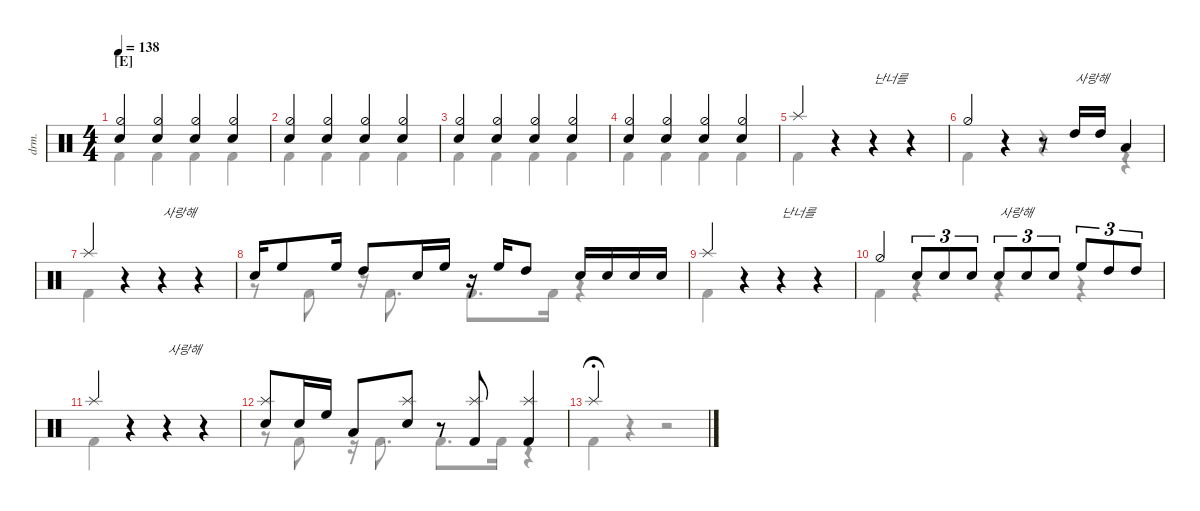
\defaultSystemsLayout 4
\hideDynamics
\bracketExtendMode nobrackets
\track ("Drumkit" "drm.") {instrument percussion}
\staff {score}
\articulation defaults
\voice
\ts (4 4)
\section ("E" "")
\tempo 138
\clef neutral
\ks c
("Snare (hit) 2" "Hi-Hat (half)").4{dy mf beam Up} ("Snare (hit) 2" "Hi-Hat (half)").4{beam Up} ("Snare (hit) 2" "Hi-Hat (half)").4{beam Up} ("Snare (hit) 2" "Hi-Hat (half)").4{beam Up} |
("Snare (hit) 2" "Hi-Hat (half)").4{beam Up} ("Snare (hit) 2" "Hi-Hat (half)").4{beam Up} ("Snare (hit) 2" "Hi-Hat (half)").4{beam Up} ("Snare (hit) 2" "Hi-Hat (half)").4{beam Up} |
("Snare (hit) 2" "Hi-Hat (half)").4{beam Up} ("Snare (hit) 2" "Hi-Hat (half)").4{beam Up} ("Snare (hit) 2" "Hi-Hat (half)").4{beam Up} ("Snare (hit) 2" "Hi-Hat (half)").4{beam Up} |
("Snare (hit) 2" "Hi-Hat (half)").4{beam Up} ("Snare (hit) 2" "Hi-Hat (half)").4{beam Up} ("Snare (hit) 2" "Hi-Hat (half)").4{beam Up} ("Snare (hit) 2" "Hi-Hat (half)").4{beam Up} |
"Splash (hit)".4{beam Up} r.4{beam Up} r.4{txt "난너를" beam Up} r.4{beam Up} |
"Hi-Hat (half)".4{beam Up} r.4{beam Up} r.8{beam Up} "High Tom (hit)".16{txt "사랑해" beam Up} "High Tom (hit)".16{beam Up} "Low Tom (hit)".4{beam Up} |
"Splash (hit)".4{beam Up} r.4{beam Up} r.4{txt "사랑해" beam Up} r.4{beam Up} |
"Snare (hit) 2".16{beam Up} "High Floor Tom (hit)".8{beam Up} "High Floor Tom (hit)".16{beam Up} "High Tom (hit)".8{beam Up} "Snare (hit) 2".16{beam Up} "High Floor Tom (hit)".16{beam Up} r.16{beam Up} "High Floor Tom (hit)".16{beam Up} "High Tom (hit)".8{beam Up} "Snare (hit) 2".16{beam Up} "Snare (hit) 2".16{beam Up} "Snare (hit) 2".16{beam Up} "Snare (hit) 2".16{beam Up} |
"Splash (hit)".4{beam Up} r.4{beam Up} r.4{txt "난너를" beam Up} r.4{beam Up} |
"Hi-Hat (half)".4{beam Up} "Snare (hit) 2".8{tu (3 2) beam Up} "Snare (hit) 2".8{tu (3 2) beam Up} "Snare (hit) 2".8{tu (3 2) beam Up} "Snare (hit) 2".8{tu (3 2) txt "사랑해" beam Up} "Snare (hit) 2".8{tu (3 2) beam Up} "Snare (hit) 2".8{tu (3 2) beam Up} "High Floor Tom (hit)".8{tu (3 2) beam Up} "High Tom (hit)".8{tu (3 2) beam Up} "High Tom (hit)".8{tu (3 2) beam Up} |
"Splash (hit)".4{beam Up} r.4{beam Up} r.4{txt "사랑해" beam Up} r.4{beam Up} |
("Splash (hit)" "Snare (hit) 2").8{beam Up} "Snare (hit) 2".16{beam Up} "High Floor Tom (hit)".16{beam Up} "Low Tom (hit)".8{beam Up} ("Snare (hit) 2" "Splash (hit)").8{beam Up} r.8{beam Up} ("Splash (hit)" "Kick (hit) 2").8{beam Up} ("Splash (hit)" "Kick (hit) 2").4{beam Up} |
"Splash (hit)".4{fermata (medium 0.5) beam Up}
\voice
\clef neutral
\ottava regular
\simile none
\ks c
|
|
|
|
|
|
|
|
|
|
|
|
\voice
\clef neutral
\ottava regular
\simile none
\ks c "Kick (hit) 2".4{dy mf beam Down} "Kick (hit) 2".4{beam Down} "Kick (hit) 2".4{beam Down} "Kick (hit) 2".4{beam Down}
|
"Kick (hit) 2".4{beam Down} "Kick (hit) 2".4{beam Down} "Kick (hit) 2".4{beam Down} "Kick (hit) 2".4{beam Down} |
"Kick (hit) 2".4{beam Down} "Kick (hit) 2".4{beam Down} "Kick (hit) 2".4{beam Down} "Kick (hit) 2".4{beam Down} |
"Kick (hit) 2".4{beam Down} "Kick (hit) 2".4{beam Down} "Kick (hit) 2".4{beam Down} "Kick (hit) 2".4{beam Down} |
"Kick (hit) 2".4{beam Down} r.4{beam Down} r.4{beam Down} r.4{beam Down} |
"Kick (hit) 2".4{beam Down} r.4{beam Down} r.4{beam Down} r.4{beam Down} |
"Kick (hit) 2".4{beam Down} r.4{beam Down} r.4{beam Down} r.4{beam Down} |
r.8{beam Down} "Kick (hit) 2".8{beam Down} r.16{beam Down} "Kick (hit) 2".8{d beam Down} "Kick (hit) 2".8{d beam Down} "Kick (hit) 2".16{beam Down} r.4{beam Down} |
"Kick (hit) 2".4{beam Down} r.4{beam Down} r.4{beam Down} r.4{beam Down} |
"Kick (hit) 2".4{beam Down} r.4{beam Down} r.4{beam Down} r.4{beam Down} |
"Kick (hit) 2".4{beam Down} r.4{beam Down} r.4{beam Down} r.4{beam Down} |
r.8{beam Down} "Kick (hit) 2".8{beam Down} r.16{beam Down} "Kick (hit) 2".8{d beam Down} "Kick (hit) 2".8{d beam Down} "Kick (hit) 2".16{beam Down} r.4{beam Down} |
"Kick (hit) 2".4{fermata (medium 0.5) beam Down} r.4{beam Down} r.2{beam Down}
